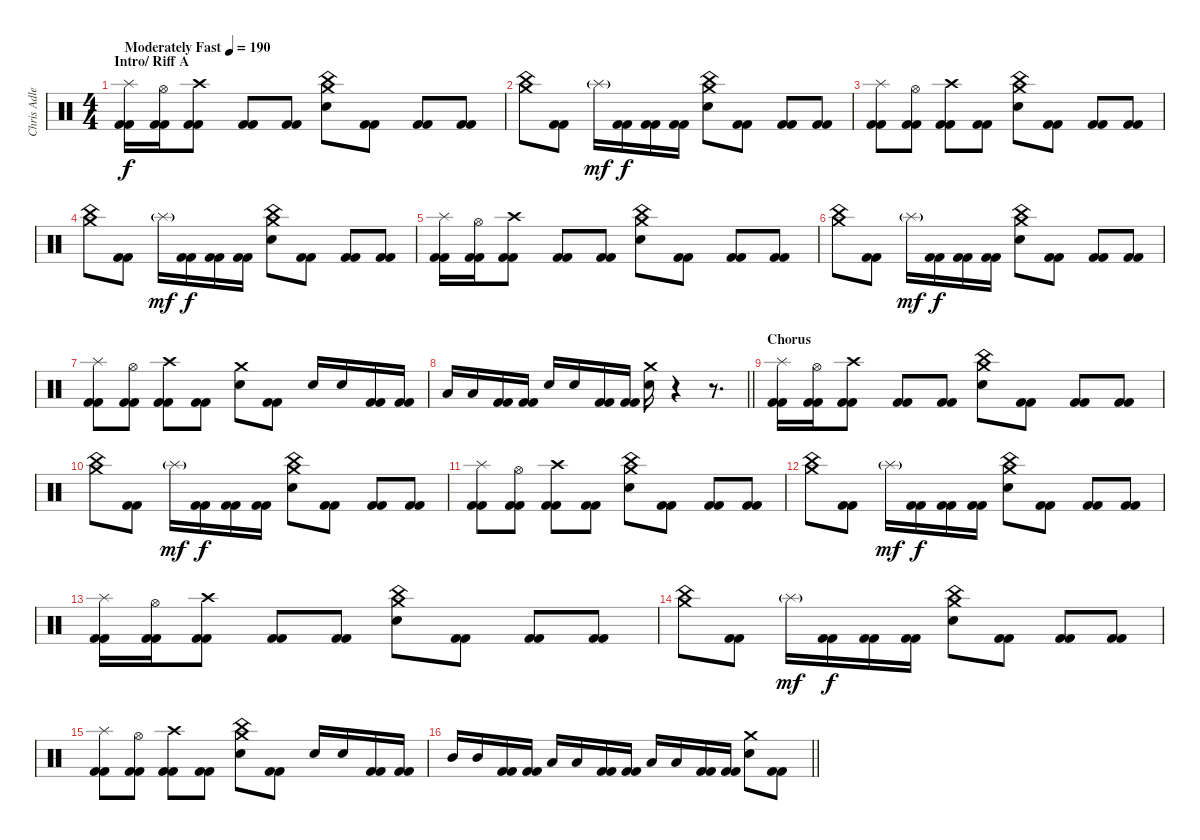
\track ("Chris Adler" "Chris Adle") {instrument percussion}
\staff {score}
\articulation defaults
\ts (4 4)
\section ("" "Intro/ Riff A")
\tempo (190 "Moderately Fast")
\clef neutral
\ks c
("Splash (hit)" "Kick (hit) 2" "Kick (hit) 2").16{dy f} ("Hi-Hat (open)" "Kick (hit) 2" "Kick (hit) 2").16 ("Crash high (hit)" "Kick (hit) 2" "Kick (hit) 2").8 ("Kick (hit) 2" "Kick (hit) 2").8 ("Kick (hit) 2" "Kick (hit) 2").8 ("Crash medium (hit)" "China (hit)" "Snare (hit) 2").8 ("Kick (hit) 2" "Kick (hit) 2").8 ("Kick (hit) 2" "Kick (hit) 2").8 ("Kick (hit) 2" "Kick (hit) 2").8 |
("Crash medium (hit)" "China (hit)").8 ("Kick (hit) 2" "Kick (hit) 2").8 "Splash (hit)"{g}.16{dy mf} ("Kick (hit) 2" "Kick (hit) 2").16{dy f} ("Kick (hit) 2" "Kick (hit) 2").16 ("Kick (hit) 2" "Kick (hit) 2").16 ("Crash medium (hit)" "China (hit)" "Snare (hit) 2").8 ("Kick (hit) 2" "Kick (hit) 2").8 ("Kick (hit) 2" "Kick (hit) 2").8 ("Kick (hit) 2" "Kick (hit) 2").8 |
("Splash (hit)" "Kick (hit) 2" "Kick (hit) 2").8 ("Hi-Hat (open)" "Kick (hit) 2" "Kick (hit) 2").8 ("Crash high (hit)" "Kick (hit) 2" "Kick (hit) 2").8 ("Kick (hit) 2" "Kick (hit) 2").8 ("Crash medium (hit)" "China (hit)" "Snare (hit) 2").8 ("Kick (hit) 2" "Kick (hit) 2").8 ("Kick (hit) 2" "Kick (hit) 2").8 ("Kick (hit) 2" "Kick (hit) 2").8 |
("Crash medium (hit)" "China (hit)").8 ("Kick (hit) 2" "Kick (hit) 2").8 "Splash (hit)"{g}.16{dy mf} ("Kick (hit) 2" "Kick (hit) 2").16{dy f} ("Kick (hit) 2" "Kick (hit) 2").16 ("Kick (hit) 2" "Kick (hit) 2").16 ("Crash medium (hit)" "China (hit)" "Snare (hit) 2").8 ("Kick (hit) 2" "Kick (hit) 2").8 ("Kick (hit) 2" "Kick (hit) 2").8 ("Kick (hit) 2" "Kick (hit) 2").8 |
("Splash (hit)" "Kick (hit) 2" "Kick (hit) 2").16 ("Hi-Hat (open)" "Kick (hit) 2" "Kick (hit) 2").16 ("Crash high (hit)" "Kick (hit) 2" "Kick (hit) 2").8 ("Kick (hit) 2" "Kick (hit) 2").8 ("Kick (hit) 2" "Kick (hit) 2").8 ("Crash medium (hit)" "China (hit)" "Snare (hit) 2").8 ("Kick (hit) 2" "Kick (hit) 2").8 ("Kick (hit) 2" "Kick (hit) 2").8 ("Kick (hit) 2" "Kick (hit) 2").8 |
("Crash medium (hit)" "China (hit)").8 ("Kick (hit) 2" "Kick (hit) 2").8 "Splash (hit)"{g}.16{dy mf} ("Kick (hit) 2" "Kick (hit) 2").16{dy f} ("Kick (hit) 2" "Kick (hit) 2").16 ("Kick (hit) 2" "Kick (hit) 2").16 ("Crash medium (hit)" "China (hit)" "Snare (hit) 2").8 ("Kick (hit) 2" "Kick (hit) 2").8 ("Kick (hit) 2" "Kick (hit) 2").8 ("Kick (hit) 2" "Kick (hit) 2").8 |
("Splash (hit)" "Kick (hit) 2" "Kick (hit) 2").8 ("Hi-Hat (open)" "Kick (hit) 2" "Kick (hit) 2").8 ("Crash high (hit)" "Kick (hit) 2" "Kick (hit) 2").8 ("Kick (hit) 2" "Kick (hit) 2").8 ("Crash medium (hit)" "Snare (hit) 2").8 ("Kick (hit) 2" "Kick (hit) 2").8 "Snare (hit) 2".16 "Snare (hit) 2".16 ("Kick (hit) 2" "Kick (hit) 2").16 ("Kick (hit) 2" "Kick (hit) 2").16 |
\barLineRight lightlight "Low Tom (hit)".16 "Low Tom (hit)".16
("Kick (hit) 2" "Kick (hit) 2").16 ("Kick (hit) 2" "Kick (hit) 2").16 "Snare (hit) 2".16 "Snare (hit) 2".16 ("Kick (hit) 2" "Kick (hit) 2").16 ("Kick (hit) 2" "Kick (hit) 2").16 ("Crash medium (hit)" "Snare (hit) 2").16 r.4 r.8{d} |
\section ("" "Chorus")
("Splash (hit)" "Kick (hit) 2" "Kick (hit) 2").16 ("Hi-Hat (open)" "Kick (hit) 2" "Kick (hit) 2").16 ("Crash high (hit)" "Kick (hit) 2" "Kick (hit) 2").8 ("Kick (hit) 2" "Kick (hit) 2").8 ("Kick (hit) 2" "Kick (hit) 2").8 ("Crash medium (hit)" "China (hit)" "Snare (hit) 2").8 ("Kick (hit) 2" "Kick (hit) 2").8 ("Kick (hit) 2" "Kick (hit) 2").8 ("Kick (hit) 2" "Kick (hit) 2").8 |
("Crash medium (hit)" "China (hit)").8 ("Kick (hit) 2" "Kick (hit) 2").8 "Splash (hit)"{g}.16{dy mf} ("Kick (hit) 2" "Kick (hit) 2").16{dy f} ("Kick (hit) 2" "Kick (hit) 2").16 ("Kick (hit) 2" "Kick (hit) 2").16 ("Crash medium (hit)" "China (hit)" "Snare (hit) 2").8 ("Kick (hit) 2" "Kick (hit) 2").8 ("Kick (hit) 2" "Kick (hit) 2").8 ("Kick (hit) 2" "Kick (hit) 2").8 |
("Splash (hit)" "Kick (hit) 2" "Kick (hit) 2").8 ("Hi-Hat (open)" "Kick (hit) 2" "Kick (hit) 2").8 ("Crash high (hit)" "Kick (hit) 2" "Kick (hit) 2").8 ("Kick (hit) 2" "Kick (hit) 2").8 ("Crash medium (hit)" "China (hit)" "Snare (hit) 2").8 ("Kick (hit) 2" "Kick (hit) 2").8 ("Kick (hit) 2" "Kick (hit) 2").8 ("Kick (hit) 2" "Kick (hit) 2").8 |
("Crash medium (hit)" "China (hit)").8 ("Kick (hit) 2" "Kick (hit) 2").8 "Splash (hit)"{g}.16{dy mf} ("Kick (hit) 2" "Kick (hit) 2").16{dy f} ("Kick (hit) 2" "Kick (hit) 2").16 ("Kick (hit) 2" "Kick (hit) 2").16 ("Crash medium (hit)" "China (hit)" "Snare (hit) 2").8 ("Kick (hit) 2" "Kick (hit) 2").8 ("Kick (hit) 2" "Kick (hit) 2").8 ("Kick (hit) 2" "Kick (hit) 2").8 |
("Splash (hit)" "Kick (hit) 2" "Kick (hit) 2").16 ("Hi-Hat (open)" "Kick (hit) 2" "Kick (hit) 2").16 ("Crash high (hit)" "Kick (hit) 2" "Kick (hit) 2").8 ("Kick (hit) 2" "Kick (hit) 2").8 ("Kick (hit) 2" "Kick (hit) 2").8 ("Crash medium (hit)" "China (hit)" "Snare (hit) 2").8 ("Kick (hit) 2" "Kick (hit) 2").8 ("Kick (hit) 2" "Kick (hit) 2").8 ("Kick (hit) 2" "Kick (hit) 2").8 |
("Crash medium (hit)" "China (hit)").8 ("Kick (hit) 2" "Kick (hit) 2").8 "Splash (hit)"{g}.16{dy mf} ("Kick (hit) 2" "Kick (hit) 2").16{dy f} ("Kick (hit) 2" "Kick (hit) 2").16 ("Kick (hit) 2" "Kick (hit) 2").16 ("Crash medium (hit)" "China (hit)" "Snare (hit) 2").8 ("Kick (hit) 2" "Kick (hit) 2").8 ("Kick (hit) 2" "Kick (hit) 2").8 ("Kick (hit) 2" "Kick (hit) 2").8 |
("Splash (hit)" "Kick (hit) 2" "Kick (hit) 2").8 ("Hi-Hat (open)" "Kick (hit) 2" "Kick (hit) 2").8 ("Crash high (hit)" "Kick (hit) 2" "Kick (hit) 2").8 ("Kick (hit) 2" "Kick (hit) 2").8 ("Crash medium (hit)" "China (hit)" "Snare (hit) 2").8 ("Kick (hit) 2" "Kick (hit) 2").8 "Snare (hit) 2".16 "Snare (hit) 2".16 ("Kick (hit) 2" "Kick (hit) 2").16 ("Kick (hit) 2" "Kick (hit) 2").16 |
\barLineRight lightlight "Mid Tom (hit)".16 "Mid Tom (hit)".16
("Kick (hit) 2" "Kick (hit) 2").16 ("Kick (hit) 2" "Kick (hit) 2").16 "Low Tom (hit)".16 "Low Tom (hit)".16 ("Kick (hit) 2" "Kick (hit) 2").16 ("Kick (hit) 2" "Kick (hit) 2").16 "Low Floor Tom (hit)".16 "Low Floor Tom (hit)".16 ("Kick (hit) 2" "Kick (hit) 2").16 ("Kick (hit) 2" "Kick (hit) 2").16 ("Crash medium (hit)" "Snare (hit) 2").8 ("Kick (hit) 2" "Kick (hit) 2").8
